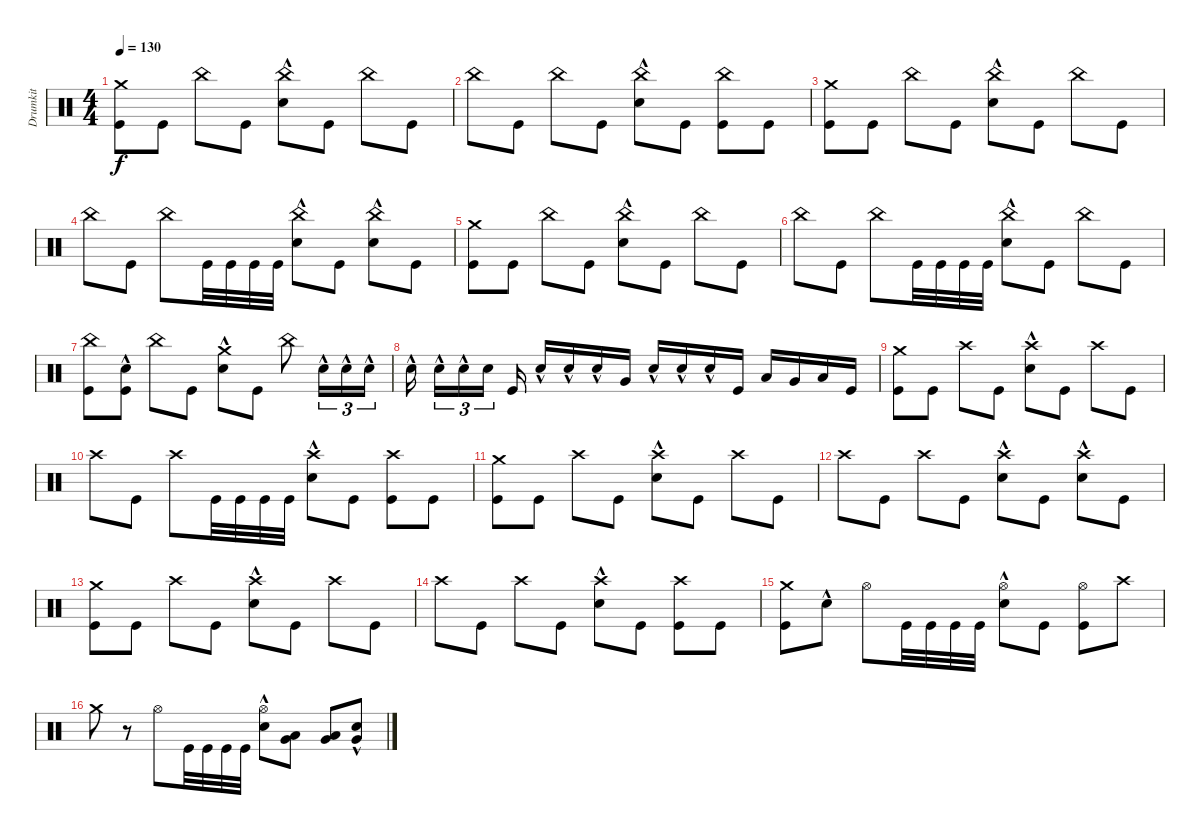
\track ("Drumkit" "Drumkit") {instrument percussion}
\staff {score}
\articulation defaults
\ts (4 4)
\tempo 130
\clef neutral
\ks c
("Kick (hit)" "Crash medium (hit)").8{dy f} "Kick (hit)".8 "China (hit)".8 "Kick (hit)".8 ("Snare (hit) 2"{hac} "China (hit)").8 "Kick (hit)".8 "China (hit)".8 "Kick (hit)".8 |
"China (hit)".8 "Kick (hit)".8 "China (hit)".8 "Kick (hit)".8 ("China (hit)" "Snare (hit) 2"{hac}).8 "Kick (hit)".8 ("China (hit)" "Kick (hit)").8 "Kick (hit)".8 |
("Kick (hit)" "Crash medium (hit)").8 "Kick (hit)".8 "China (hit)".8 "Kick (hit)".8 ("Snare (hit) 2"{hac} "China (hit)").8 "Kick (hit)".8 "China (hit)".8 "Kick (hit)".8 |
"China (hit)".8 "Kick (hit)".8 "China (hit)".8 "Kick (hit)".32 "Kick (hit)".32 "Kick (hit)".32 "Kick (hit)".32 ("China (hit)" "Snare (hit) 2"{hac}).8 "Kick (hit)".8 ("China (hit)" "Snare (hit) 2"{hac}).8 "Kick (hit)".8 |
("Kick (hit)" "Crash medium (hit)").8 "Kick (hit)".8 "China (hit)".8 "Kick (hit)".8 ("Snare (hit) 2"{hac} "China (hit)").8 "Kick (hit)".8 "China (hit)".8 "Kick (hit)".8 |
"China (hit)".8 "Kick (hit)".8 "China (hit)".8 "Kick (hit)".32 "Kick (hit)".32 "Kick (hit)".32 "Kick (hit)".32 ("China (hit)" "Snare (hit) 2"{hac}).8 "Kick (hit)".8 "China (hit)".8 "Kick (hit)".8 |
("Kick (hit)" "China (hit)").8 ("Kick (hit)" "Snare (hit) 2"{hac}).8 "China (hit)".8 "Kick (hit)".8 ("Snare (hit) 2"{hac} "Crash medium (hit)").8 "Kick (hit)".8 "China (hit)".8 "Snare (hit) 2"{hac}.16{tu (3 2)} "Snare (hit) 2"{hac}.16{tu (3 2)} "Snare (hit) 2"{hac}.16{tu (3 2)} |
"Snare (hit) 2"{hac}.16 "Snare (hit) 2"{hac}.16{tu (3 2)} "Snare (hit) 2"{hac}.16{tu (3 2)} "Snare (hit) 2".16{tu (3 2)} "Kick (hit)".16 "Snare (hit) 2"{hac}.16 "Snare (hit) 2"{hac}.16 "Snare (hit) 2"{hac}.16 "Very Low Tom (hit)".16 "Snare (hit) 2"{hac}.16 "Snare (hit) 2"{hac}.16 "Snare (hit) 2"{hac}.16 "Kick (hit)".16 "Low Tom (hit)".16 "Very Low Tom (hit)".16 "Low Floor Tom (hit)".16 "Kick (hit)".16 |
("Kick (hit)" "Crash medium (hit)").8 "Kick (hit)".8 "Crash high (hit)".8 "Kick (hit)".8 ("Snare (hit) 2"{hac} "Crash high (hit)").8 "Kick (hit)".8 "Crash high (hit)".8 "Kick (hit)".8 |
"Crash high (hit)".8 "Kick (hit)".8 "Crash high (hit)".8 "Kick (hit)".32 "Kick (hit)".32 "Kick (hit)".32 "Kick (hit)".32 ("Snare (hit) 2"{hac} "Crash high (hit)").8 "Kick (hit)".8 ("Kick (hit)" "Crash high (hit)").8 "Kick (hit)".8 |
("Kick (hit)" "Crash medium (hit)").8 "Kick (hit)".8 "Crash high (hit)".8 "Kick (hit)".8 ("Snare (hit) 2"{hac} "Crash high (hit)").8 "Kick (hit)".8 "Crash high (hit)".8 "Kick (hit)".8 |
"Crash high (hit)".8 "Kick (hit)".8 "Crash high (hit)".8 "Kick (hit)".8 ("Snare (hit) 2"{hac} "Crash high (hit)").8 "Kick (hit)".8 ("Snare (hit) 2"{hac} "Crash high (hit)").8 "Kick (hit)".8 |
("Kick (hit)" "Crash medium (hit)").8 "Kick (hit)".8 "Crash high (hit)".8 "Kick (hit)".8 ("Snare (hit) 2"{hac} "Crash high (hit)").8 "Kick (hit)".8 "Crash high (hit)".8 "Kick (hit)".8 |
"Crash high (hit)".8 "Kick (hit)".8 "Crash high (hit)".8 "Kick (hit)".8 ("Snare (hit) 2"{hac} "Crash high (hit)").8 "Kick (hit)".8 ("Kick (hit)" "Crash high (hit)").8 "Kick (hit)".8 |
("Kick (hit)" "Crash medium (hit)").8 "Snare (hit) 2"{hac}.8 "Hi-Hat (open)".8 "Kick (hit)".32 "Kick (hit)".32 "Kick (hit)".32 "Kick (hit)".32 ("Hi-Hat (open)" "Snare (hit) 2"{hac}).8 "Kick (hit)".8 ("Hi-Hat (open)" "Kick (hit)").8 "Crash high (hit)".8 |
"Crash medium (hit)".8 r.8 "Hi-Hat (open)".8 "Kick (hit)".32 "Kick (hit)".32 "Kick (hit)".32 "Kick (hit)".32 ("Snare (hit) 2"{hac} "Hi-Hat (open)").8 ("Low Tom (hit)" "Very Low Tom (hit)").8 ("Low Tom (hit)" "Very Low Tom (hit)").8 ("Very Low Tom (hit)" "Snare (hit) 2"{hac}).8
